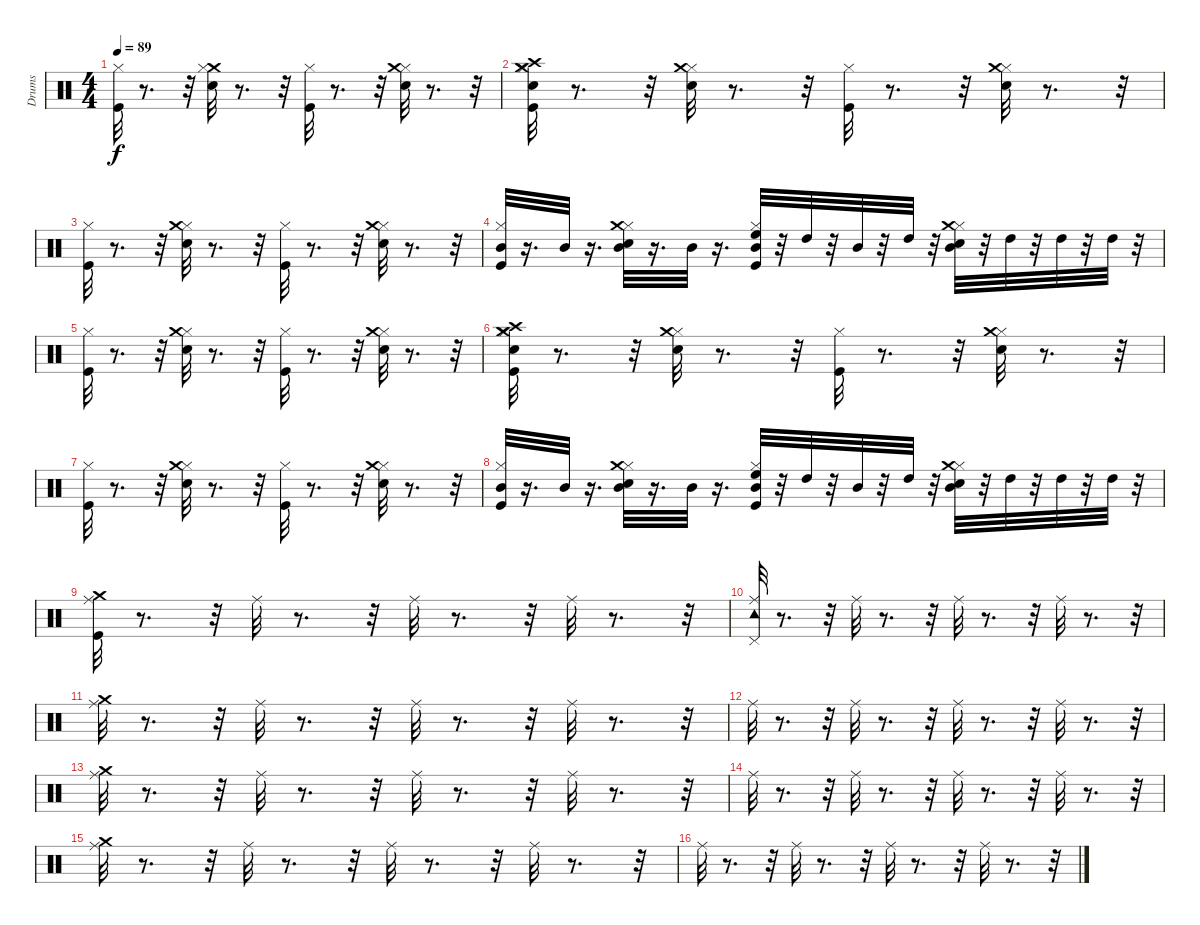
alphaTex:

\track ("Drums" "Drums") {instrument percussion}
\staff {score}
\articulation defaults
\ts (4 4)
\tempo 89
\clef neutral
\ks c
("Kick (hit)" "Hi-Hat (closed)").32{dy f} r.8{d} r.32 ("Crash medium (hit)" "Snare (hit) 2" "Hi-Hat (closed)").32 r.8{d} r.32 ("Kick (hit)" "Hi-Hat (closed)").32 r.8{d} r.32 ("Hi-Hat (closed)" "Crash medium (hit)" "Snare (hit) 2").32 r.8{d} r.32 |
("Kick (hit)" "Snare (hit) 2" "Hi-Hat (closed)" "Crash high (hit)" "Crash medium (hit)").32 r.8{d} r.32 ("Hi-Hat (closed)" "Crash medium (hit)" "Snare (hit) 2").32 r.8{d} r.32 ("Hi-Hat (closed)" "Kick (hit)").32 r.8{d} r.32 ("Hi-Hat (closed)" "Crash medium (hit)" "Snare (hit) 2").32 r.8{d} r.32 |
("Hi-Hat (closed)" "Kick (hit)").32 r.8{d} r.32 ("Hi-Hat (closed)" "Snare (hit) 2" "Crash medium (hit)").32 r.8{d} r.32 ("Hi-Hat (closed)" "Kick (hit)").32 r.8{d} r.32 ("Hi-Hat (closed)" "Snare (hit) 2" "Crash medium (hit)").32 r.8{d} r.32 |
("Mid Tom (hit)" "Hi-Hat (closed)" "Kick (hit)").32 r.16{d} "Mid Tom (hit)".32 r.16{d} ("Hi-Hat (closed)" "Snare (hit) 2" "Mid Tom (hit)" "Crash medium (hit)").32 r.16{d} "Mid Tom (hit)".32 r.16{d} ("Mid Tom (hit)" "Hi-Hat (closed)" "High Floor Tom (hit)" "Kick (hit)").32 r.32 "High Tom (hit)".32 r.32 "Mid Tom (hit)".32 r.32 "High Tom (hit)".32 r.32 ("Hi-Hat (closed)" "Snare (hit) 2" "Mid Tom (hit)" "Crash medium (hit)").32 r.32 "High Tom (hit)".32 r.32 "High Tom (hit)".32 r.32 "High Tom (hit)".32 r.32 |
("Kick (hit)" "Hi-Hat (closed)").32 r.8{d} r.32 ("Snare (hit) 2" "Hi-Hat (closed)" "Crash medium (hit)").32 r.8{d} r.32 ("Kick (hit)" "Hi-Hat (closed)").32 r.8{d} r.32 ("Hi-Hat (closed)" "Snare (hit) 2" "Crash medium (hit)").32 r.8{d} r.32 |
("Kick (hit)" "Snare (hit) 2" "Hi-Hat (closed)" "Crash high (hit)" "Crash medium (hit)").32 r.8{d} r.32 ("Hi-Hat (closed)" "Snare (hit) 2" "Crash medium (hit)").32 r.8{d} r.32 ("Hi-Hat (closed)" "Kick (hit)").32 r.8{d} r.32 ("Hi-Hat (closed)" "Snare (hit) 2" "Crash medium (hit)").32 r.8{d} r.32 |
("Hi-Hat (closed)" "Kick (hit)").32 r.8{d} r.32 ("Hi-Hat (closed)" "Snare (hit) 2" "Crash medium (hit)").32 r.8{d} r.32 ("Hi-Hat (closed)" "Kick (hit)").32 r.8{d} r.32 ("Hi-Hat (closed)" "Snare (hit) 2" "Crash medium (hit)").32 r.8{d} r.32 |
("Hi-Hat (closed)" "Kick (hit)" "Mid Tom (hit)").32 r.16{d} "Mid Tom (hit)".32 r.16{d} ("Hi-Hat (closed)" "Snare (hit) 2" "Mid Tom (hit)" "Crash medium (hit)").32 r.16{d} "Mid Tom (hit)".32 r.16{d} ("Mid Tom (hit)" "Hi-Hat (closed)" "High Floor Tom (hit)" "Kick (hit)").32 r.32 "High Tom (hit)".32 r.32 "Mid Tom (hit)".32 r.32 "High Tom (hit)".32 r.32 ("Snare (hit) 2" "Mid Tom (hit)" "Hi-Hat (closed)" "Crash medium (hit)").32 r.32 "High Tom (hit)".32 r.32 "High Tom (hit)".32 r.32 "High Tom (hit)".32 r.32 |
("Kick (hit)" "Crash medium (hit)" "Ride (middle)").32 r.8{d} r.32 "Ride (middle)".32 r.8{d} r.32 "Ride (middle)".32 r.8{d} r.32 "Ride (middle)".32 r.8{d} r.32 |
("Tambourine (hit)" "Pedal Hi-Hat (hit)" "Ride (middle)").32 r.8{d} r.32 "Ride (middle)".32 r.8{d} r.32 "Ride (middle)".32 r.8{d} r.32 "Ride (middle)".32 r.8{d} r.32 |
("Crash medium (hit)" "Ride (middle)").32 r.8{d} r.32 "Ride (middle)".32 r.8{d} r.32 "Ride (middle)".32 r.8{d} r.32 "Ride (middle)".32 r.8{d} r.32 |
"Ride (middle)".32 r.8{d} r.32 "Ride (middle)".32 r.8{d} r.32 "Ride (middle)".32 r.8{d} r.32 "Ride (middle)".32 r.8{d} r.32 |
("Crash medium (hit)" "Ride (middle)").32 r.8{d} r.32 "Ride (middle)".32 r.8{d} r.32 "Ride (middle)".32 r.8{d} r.32 "Ride (middle)".32 r.8{d} r.32 |
"Ride (middle)".32 r.8{d} r.32 "Ride (middle)".32 r.8{d} r.32 "Ride (middle)".32 r.8{d} r.32 "Ride (middle)".32 r.8{d} r.32 |
("Crash medium (hit)" "Ride (middle)").32 r.8{d} r.32 "Ride (middle)".32 r.8{d} r.32 "Ride (middle)".32 r.8{d} r.32 "Ride (middle)".32 r.8{d} r.32 |
"Ride (middle)".32 r.8{d} r.32 "Ride (middle)".32 r.8{d} r.32 "Ride (middle)".32 r.8{d} r.32 "Ride (middle)".32 r.8{d} r.32
